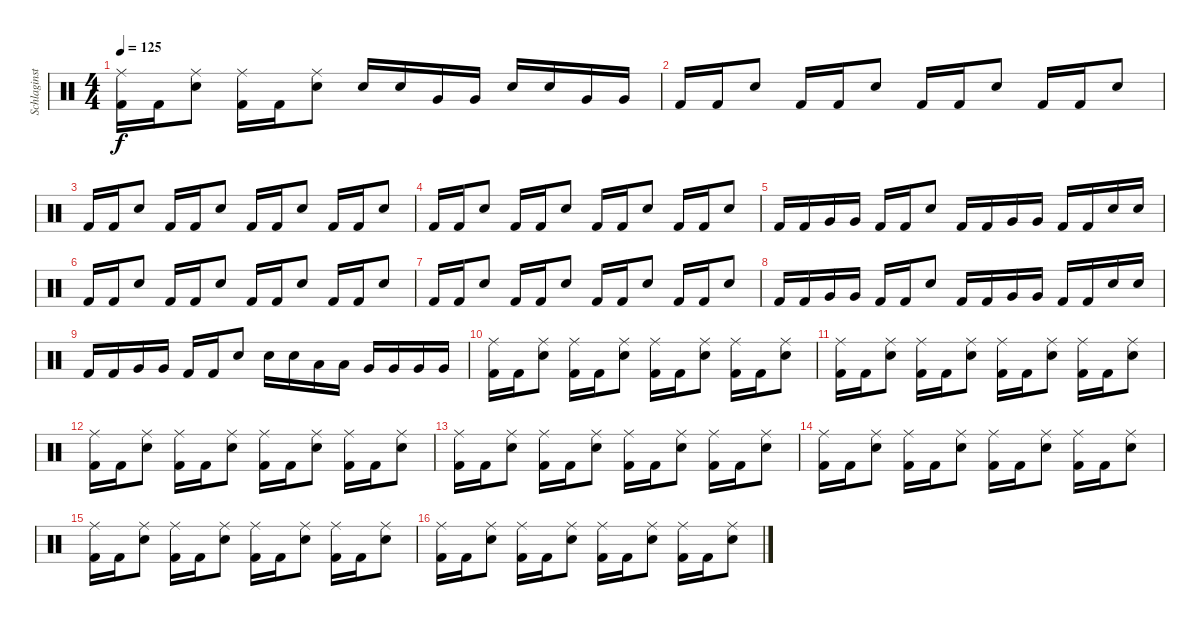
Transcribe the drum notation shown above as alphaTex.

\track ("Schlaginstrumente - Auswahl" "Schlaginst") {instrument percussion}
\staff {score}
\articulation defaults
\ts (4 4)
\tempo 125
\clef neutral
\ks c
("Ride (middle)" "Kick (hit) 2").16{dy f} "Kick (hit) 2".16 ("Ride (middle)" "Snare (hit) 2").8 ("Ride (middle)" "Kick (hit) 2").16 "Kick (hit) 2".16 ("Ride (middle)" "Snare (hit) 2").8 "Snare (hit) 2".16 "Snare (hit) 2".16 "Very Low Tom (hit)".16 "Very Low Tom (hit)".16 "Snare (hit) 2".16 "Snare (hit) 2".16 "Very Low Tom (hit)".16 "Very Low Tom (hit)".16 |
"Kick (hit) 2".16 "Kick (hit) 2".16 "Snare (hit) 2".8 "Kick (hit) 2".16 "Kick (hit) 2".16 "Snare (hit) 2".8 "Kick (hit) 2".16 "Kick (hit) 2".16 "Snare (hit) 2".8 "Kick (hit) 2".16 "Kick (hit) 2".16 "Snare (hit) 2".8 |
"Kick (hit) 2".16 "Kick (hit) 2".16 "Snare (hit) 2".8 "Kick (hit) 2".16 "Kick (hit) 2".16 "Snare (hit) 2".8 "Kick (hit) 2".16 "Kick (hit) 2".16 "Snare (hit) 2".8 "Kick (hit) 2".16 "Kick (hit) 2".16 "Snare (hit) 2".8 |
"Kick (hit) 2".16 "Kick (hit) 2".16 "Snare (hit) 2".8 "Kick (hit) 2".16 "Kick (hit) 2".16 "Snare (hit) 2".8 "Kick (hit) 2".16 "Kick (hit) 2".16 "Snare (hit) 2".8 "Kick (hit) 2".16 "Kick (hit) 2".16 "Snare (hit) 2".8 |
"Kick (hit) 2".16 "Kick (hit) 2".16 "Very Low Tom (hit)".16 "Very Low Tom (hit)".16 "Kick (hit) 2".16 "Kick (hit) 2".16 "Snare (hit) 2".8 "Kick (hit) 2".16 "Kick (hit) 2".16 "Very Low Tom (hit)".16 "Very Low Tom (hit)".16 "Kick (hit) 2".16 "Kick (hit) 2".16 "Snare (hit) 2".16 "Snare (hit) 2".16 |
"Kick (hit) 2".16 "Kick (hit) 2".16 "Snare (hit) 2".8 "Kick (hit) 2".16 "Kick (hit) 2".16 "Snare (hit) 2".8 "Kick (hit) 2".16 "Kick (hit) 2".16 "Snare (hit) 2".8 "Kick (hit) 2".16 "Kick (hit) 2".16 "Snare (hit) 2".8 |
"Kick (hit) 2".16 "Kick (hit) 2".16 "Snare (hit) 2".8 "Kick (hit) 2".16 "Kick (hit) 2".16 "Snare (hit) 2".8 "Kick (hit) 2".16 "Kick (hit) 2".16 "Snare (hit) 2".8 "Kick (hit) 2".16 "Kick (hit) 2".16 "Snare (hit) 2".8 |
"Kick (hit) 2".16 "Kick (hit) 2".16 "Very Low Tom (hit)".16 "Very Low Tom (hit)".16 "Kick (hit) 2".16 "Kick (hit) 2".16 "Snare (hit) 2".8 "Kick (hit) 2".16 "Kick (hit) 2".16 "Very Low Tom (hit)".16 "Very Low Tom (hit)".16 "Kick (hit) 2".16 "Kick (hit) 2".16 "Snare (hit) 2".16 "Snare (hit) 2".16 |
"Kick (hit) 2".16 "Kick (hit) 2".16 "Very Low Tom (hit)".16 "Very Low Tom (hit)".16 "Kick (hit) 2".16 "Kick (hit) 2".16 "Snare (hit) 2".8 "Snare (hit) 2".16 "Snare (hit) 2".16 "Low Tom (hit)".16 "Low Tom (hit)".16 "Very Low Tom (hit)".16 "Very Low Tom (hit)".16 "Very Low Tom (hit)".16 "Very Low Tom (hit)".16 |
("Ride (middle)" "Kick (hit) 2").16 "Kick (hit) 2".16 ("Ride (middle)" "Snare (hit) 2").8 ("Ride (middle)" "Kick (hit) 2").16 "Kick (hit) 2".16 ("Ride (middle)" "Snare (hit) 2").8 ("Ride (middle)" "Kick (hit) 2").16 "Kick (hit) 2".16 ("Ride (middle)" "Snare (hit) 2").8 ("Ride (middle)" "Kick (hit) 2").16 "Kick (hit) 2".16 ("Ride (middle)" "Snare (hit) 2").8 |
("Ride (middle)" "Kick (hit) 2").16 "Kick (hit) 2".16 ("Ride (middle)" "Snare (hit) 2").8 ("Ride (middle)" "Kick (hit) 2").16 "Kick (hit) 2".16 ("Ride (middle)" "Snare (hit) 2").8 ("Ride (middle)" "Kick (hit) 2").16 "Kick (hit) 2".16 ("Ride (middle)" "Snare (hit) 2").8 ("Ride (middle)" "Kick (hit) 2").16 "Kick (hit) 2".16 ("Ride (middle)" "Snare (hit) 2").8 |
("Ride (middle)" "Kick (hit) 2").16 "Kick (hit) 2".16 ("Ride (middle)" "Snare (hit) 2").8 ("Ride (middle)" "Kick (hit) 2").16 "Kick (hit) 2".16 ("Ride (middle)" "Snare (hit) 2").8 ("Ride (middle)" "Kick (hit) 2").16 "Kick (hit) 2".16 ("Ride (middle)" "Snare (hit) 2").8 ("Ride (middle)" "Kick (hit) 2").16 "Kick (hit) 2".16 ("Ride (middle)" "Snare (hit) 2").8 |
("Ride (middle)" "Kick (hit) 2").16 "Kick (hit) 2".16 ("Ride (middle)" "Snare (hit) 2").8 ("Ride (middle)" "Kick (hit) 2").16 "Kick (hit) 2".16 ("Ride (middle)" "Snare (hit) 2").8 ("Ride (middle)" "Kick (hit) 2").16 "Kick (hit) 2".16 ("Ride (middle)" "Snare (hit) 2").8 ("Ride (middle)" "Kick (hit) 2").16 "Kick (hit) 2".16 ("Ride (middle)" "Snare (hit) 2").8 |
("Ride (middle)" "Kick (hit) 2").16 "Kick (hit) 2".16 ("Ride (middle)" "Snare (hit) 2").8 ("Ride (middle)" "Kick (hit) 2").16 "Kick (hit) 2".16 ("Ride (middle)" "Snare (hit) 2").8 ("Ride (middle)" "Kick (hit) 2").16 "Kick (hit) 2".16 ("Ride (middle)" "Snare (hit) 2").8 ("Ride (middle)" "Kick (hit) 2").16 "Kick (hit) 2".16 ("Ride (middle)" "Snare (hit) 2").8 |
("Ride (middle)" "Kick (hit) 2").16 "Kick (hit) 2".16 ("Ride (middle)" "Snare (hit) 2").8 ("Ride (middle)" "Kick (hit) 2").16 "Kick (hit) 2".16 ("Ride (middle)" "Snare (hit) 2").8 ("Ride (middle)" "Kick (hit) 2").16 "Kick (hit) 2".16 ("Ride (middle)" "Snare (hit) 2").8 ("Ride (middle)" "Kick (hit) 2").16 "Kick (hit) 2".16 ("Ride (middle)" "Snare (hit) 2").8 |
("Ride (middle)" "Kick (hit) 2").16 "Kick (hit) 2".16 ("Ride (middle)" "Snare (hit) 2").8 ("Ride (middle)" "Kick (hit) 2").16 "Kick (hit) 2".16 ("Ride (middle)" "Snare (hit) 2").8 ("Ride (middle)" "Kick (hit) 2").16 "Kick (hit) 2".16 ("Ride (middle)" "Snare (hit) 2").8 ("Ride (middle)" "Kick (hit) 2").16 "Kick (hit) 2".16 ("Ride (middle)" "Snare (hit) 2").8
